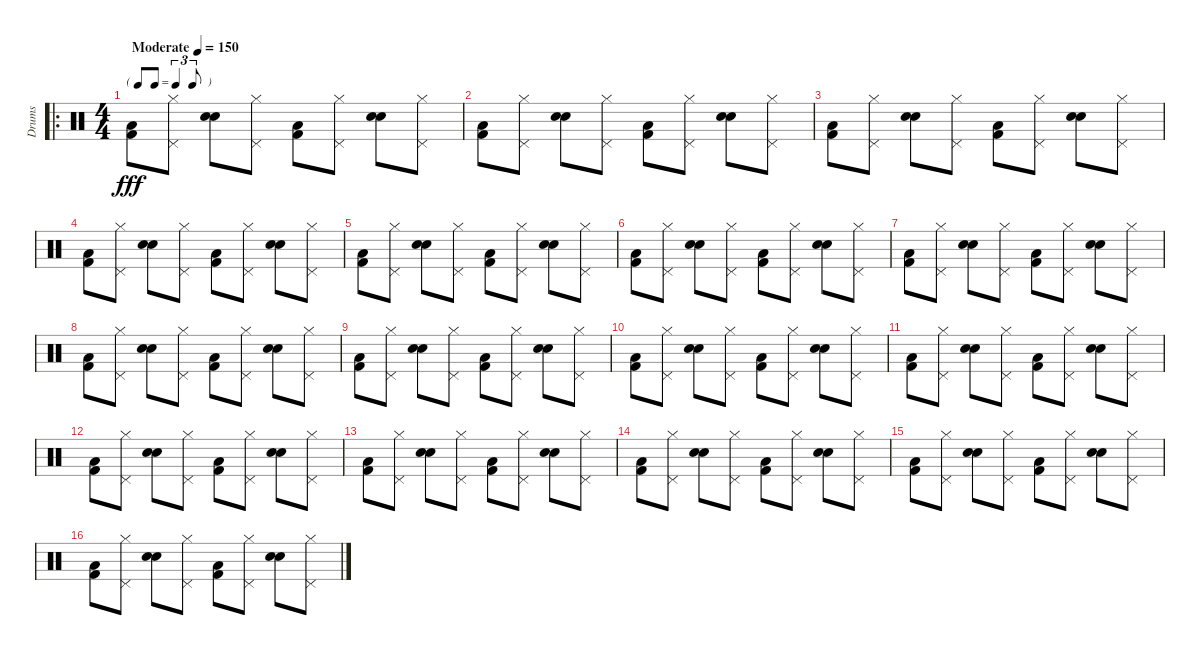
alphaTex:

\track ("Drums" "Drums") {instrument percussion}
\staff {score}
\articulation defaults
\ro
\ts (4 4)
\tf triplet8th
\tempo (150 "Moderate")
\clef neutral
\ks c
("Kick (hit) 2" "Low Floor Tom (hit)").8{dy fff} ("Hi-Hat (closed)" "Pedal Hi-Hat (hit)").8 ("Snare (hit) 2" "Electric Snare (hit)").8 ("Hi-Hat (closed)" "Pedal Hi-Hat (hit)").8 ("Kick (hit) 2" "Low Floor Tom (hit)").8 ("Hi-Hat (closed)" "Pedal Hi-Hat (hit)").8 ("Snare (hit) 2" "Electric Snare (hit)").8 ("Hi-Hat (closed)" "Pedal Hi-Hat (hit)").8 |
("Kick (hit) 2" "Low Floor Tom (hit)").8 ("Hi-Hat (closed)" "Pedal Hi-Hat (hit)").8 ("Snare (hit) 2" "Electric Snare (hit)").8 ("Hi-Hat (closed)" "Pedal Hi-Hat (hit)").8 ("Kick (hit) 2" "Low Floor Tom (hit)").8 ("Hi-Hat (closed)" "Pedal Hi-Hat (hit)").8 ("Snare (hit) 2" "Electric Snare (hit)").8 ("Hi-Hat (closed)" "Pedal Hi-Hat (hit)").8 |
("Kick (hit) 2" "Low Floor Tom (hit)").8 ("Hi-Hat (closed)" "Pedal Hi-Hat (hit)").8 ("Snare (hit) 2" "Electric Snare (hit)").8 ("Hi-Hat (closed)" "Pedal Hi-Hat (hit)").8 ("Kick (hit) 2" "Low Floor Tom (hit)").8 ("Hi-Hat (closed)" "Pedal Hi-Hat (hit)").8 ("Snare (hit) 2" "Electric Snare (hit)").8 ("Hi-Hat (closed)" "Pedal Hi-Hat (hit)").8 |
("Kick (hit) 2" "Low Floor Tom (hit)").8 ("Hi-Hat (closed)" "Pedal Hi-Hat (hit)").8 ("Snare (hit) 2" "Electric Snare (hit)").8 ("Hi-Hat (closed)" "Pedal Hi-Hat (hit)").8 ("Kick (hit) 2" "Low Floor Tom (hit)").8 ("Hi-Hat (closed)" "Pedal Hi-Hat (hit)").8 ("Snare (hit) 2" "Electric Snare (hit)").8 ("Hi-Hat (closed)" "Pedal Hi-Hat (hit)").8 |
("Kick (hit) 2" "Low Floor Tom (hit)").8 ("Hi-Hat (closed)" "Pedal Hi-Hat (hit)").8 ("Snare (hit) 2" "Electric Snare (hit)").8 ("Hi-Hat (closed)" "Pedal Hi-Hat (hit)").8 ("Kick (hit) 2" "Low Floor Tom (hit)").8 ("Hi-Hat (closed)" "Pedal Hi-Hat (hit)").8 ("Snare (hit) 2" "Electric Snare (hit)").8 ("Hi-Hat (closed)" "Pedal Hi-Hat (hit)").8 |
("Kick (hit) 2" "Low Floor Tom (hit)").8 ("Hi-Hat (closed)" "Pedal Hi-Hat (hit)").8 ("Snare (hit) 2" "Electric Snare (hit)").8 ("Hi-Hat (closed)" "Pedal Hi-Hat (hit)").8 ("Kick (hit) 2" "Low Floor Tom (hit)").8 ("Hi-Hat (closed)" "Pedal Hi-Hat (hit)").8 ("Snare (hit) 2" "Electric Snare (hit)").8 ("Hi-Hat (closed)" "Pedal Hi-Hat (hit)").8 |
("Kick (hit) 2" "Low Floor Tom (hit)").8 ("Hi-Hat (closed)" "Pedal Hi-Hat (hit)").8 ("Snare (hit) 2" "Electric Snare (hit)").8 ("Hi-Hat (closed)" "Pedal Hi-Hat (hit)").8 ("Kick (hit) 2" "Low Floor Tom (hit)").8 ("Hi-Hat (closed)" "Pedal Hi-Hat (hit)").8 ("Snare (hit) 2" "Electric Snare (hit)").8 ("Hi-Hat (closed)" "Pedal Hi-Hat (hit)").8 |
("Kick (hit) 2" "Low Floor Tom (hit)").8 ("Hi-Hat (closed)" "Pedal Hi-Hat (hit)").8 ("Snare (hit) 2" "Electric Snare (hit)").8 ("Hi-Hat (closed)" "Pedal Hi-Hat (hit)").8 ("Kick (hit) 2" "Low Floor Tom (hit)").8 ("Hi-Hat (closed)" "Pedal Hi-Hat (hit)").8 ("Snare (hit) 2" "Electric Snare (hit)").8 ("Hi-Hat (closed)" "Pedal Hi-Hat (hit)").8 |
("Kick (hit) 2" "Low Floor Tom (hit)").8 ("Hi-Hat (closed)" "Pedal Hi-Hat (hit)").8 ("Snare (hit) 2" "Electric Snare (hit)").8 ("Hi-Hat (closed)" "Pedal Hi-Hat (hit)").8 ("Kick (hit) 2" "Low Floor Tom (hit)").8 ("Hi-Hat (closed)" "Pedal Hi-Hat (hit)").8 ("Snare (hit) 2" "Electric Snare (hit)").8 ("Hi-Hat (closed)" "Pedal Hi-Hat (hit)").8 |
("Kick (hit) 2" "Low Floor Tom (hit)").8 ("Hi-Hat (closed)" "Pedal Hi-Hat (hit)").8 ("Snare (hit) 2" "Electric Snare (hit)").8 ("Hi-Hat (closed)" "Pedal Hi-Hat (hit)").8 ("Kick (hit) 2" "Low Floor Tom (hit)").8 ("Hi-Hat (closed)" "Pedal Hi-Hat (hit)").8 ("Snare (hit) 2" "Electric Snare (hit)").8 ("Hi-Hat (closed)" "Pedal Hi-Hat (hit)").8 |
("Kick (hit) 2" "Low Floor Tom (hit)").8 ("Hi-Hat (closed)" "Pedal Hi-Hat (hit)").8 ("Snare (hit) 2" "Electric Snare (hit)").8 ("Hi-Hat (closed)" "Pedal Hi-Hat (hit)").8 ("Kick (hit) 2" "Low Floor Tom (hit)").8 ("Hi-Hat (closed)" "Pedal Hi-Hat (hit)").8 ("Snare (hit) 2" "Electric Snare (hit)").8 ("Hi-Hat (closed)" "Pedal Hi-Hat (hit)").8 |
("Kick (hit) 2" "Low Floor Tom (hit)").8 ("Hi-Hat (closed)" "Pedal Hi-Hat (hit)").8 ("Snare (hit) 2" "Electric Snare (hit)").8 ("Hi-Hat (closed)" "Pedal Hi-Hat (hit)").8 ("Kick (hit) 2" "Low Floor Tom (hit)").8 ("Hi-Hat (closed)" "Pedal Hi-Hat (hit)").8 ("Snare (hit) 2" "Electric Snare (hit)").8 ("Hi-Hat (closed)" "Pedal Hi-Hat (hit)").8 |
("Kick (hit) 2" "Low Floor Tom (hit)").8 ("Hi-Hat (closed)" "Pedal Hi-Hat (hit)").8 ("Snare (hit) 2" "Electric Snare (hit)").8 ("Hi-Hat (closed)" "Pedal Hi-Hat (hit)").8 ("Kick (hit) 2" "Low Floor Tom (hit)").8 ("Hi-Hat (closed)" "Pedal Hi-Hat (hit)").8 ("Snare (hit) 2" "Electric Snare (hit)").8 ("Hi-Hat (closed)" "Pedal Hi-Hat (hit)").8 |
("Kick (hit) 2" "Low Floor Tom (hit)").8 ("Hi-Hat (closed)" "Pedal Hi-Hat (hit)").8 ("Snare (hit) 2" "Electric Snare (hit)").8 ("Hi-Hat (closed)" "Pedal Hi-Hat (hit)").8 ("Kick (hit) 2" "Low Floor Tom (hit)").8 ("Hi-Hat (closed)" "Pedal Hi-Hat (hit)").8 ("Snare (hit) 2" "Electric Snare (hit)").8 ("Hi-Hat (closed)" "Pedal Hi-Hat (hit)").8 |
("Kick (hit) 2" "Low Floor Tom (hit)").8 ("Hi-Hat (closed)" "Pedal Hi-Hat (hit)").8 ("Snare (hit) 2" "Electric Snare (hit)").8 ("Hi-Hat (closed)" "Pedal Hi-Hat (hit)").8 ("Kick (hit) 2" "Low Floor Tom (hit)").8 ("Hi-Hat (closed)" "Pedal Hi-Hat (hit)").8 ("Snare (hit) 2" "Electric Snare (hit)").8 ("Hi-Hat (closed)" "Pedal Hi-Hat (hit)").8 |
("Kick (hit) 2" "Low Floor Tom (hit)").8 ("Hi-Hat (closed)" "Pedal Hi-Hat (hit)").8 ("Snare (hit) 2" "Electric Snare (hit)").8 ("Hi-Hat (closed)" "Pedal Hi-Hat (hit)").8 ("Kick (hit) 2" "Low Floor Tom (hit)").8 ("Hi-Hat (closed)" "Pedal Hi-Hat (hit)").8 ("Snare (hit) 2" "Electric Snare (hit)").8 ("Hi-Hat (closed)" "Pedal Hi-Hat (hit)").8
